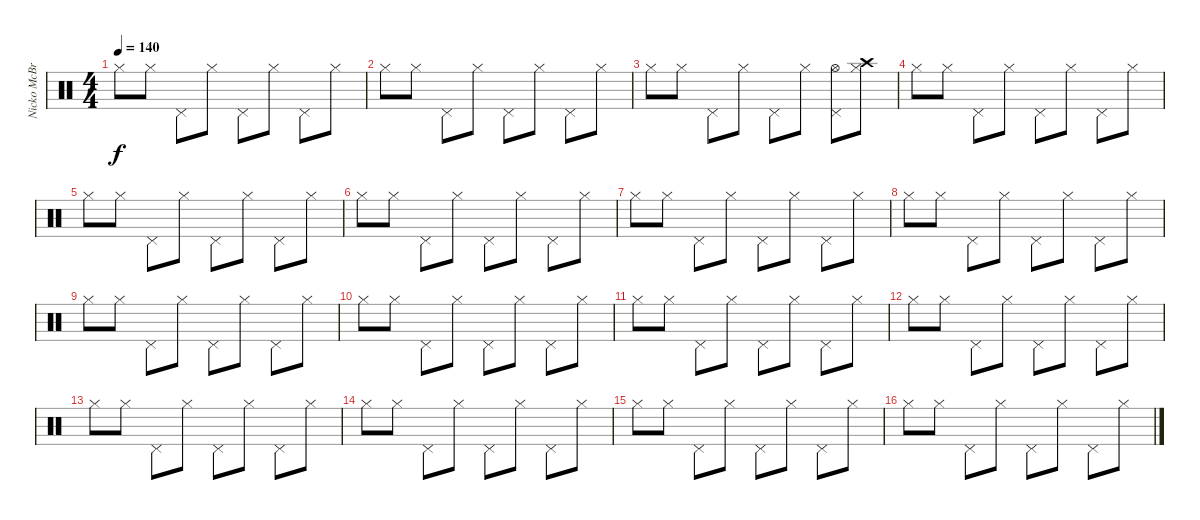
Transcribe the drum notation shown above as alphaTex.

\track ("Nicko McBrain" "Nicko McBr") {instrument percussion}
\staff {score}
\articulation defaults
\ts (4 4)
\tempo 140
\clef neutral
\ks c "Hi-Hat (closed)".8{dy f} "Hi-Hat (closed)".8 "Pedal Hi-Hat (hit)".8 "Hi-Hat (closed)".8 "Pedal Hi-Hat (hit)".8 "Hi-Hat (closed)".8 "Pedal Hi-Hat (hit)".8 "Hi-Hat (closed)".8
|
"Hi-Hat (closed)".8 "Hi-Hat (closed)".8 "Pedal Hi-Hat (hit)".8 "Hi-Hat (closed)".8 "Pedal Hi-Hat (hit)".8 "Hi-Hat (closed)".8 "Pedal Hi-Hat (hit)".8 "Hi-Hat (closed)".8 |
"Hi-Hat (closed)".8 "Hi-Hat (closed)".8 "Pedal Hi-Hat (hit)".8 "Hi-Hat (closed)".8 "Pedal Hi-Hat (hit)".8 "Hi-Hat (closed)".8 ("Hi-Hat (open)" "Pedal Hi-Hat (hit)").8 ("Crash high (hit)" "Hi-Hat (closed)").8 |
"Hi-Hat (closed)".8 "Hi-Hat (closed)".8 "Pedal Hi-Hat (hit)".8 "Hi-Hat (closed)".8 "Pedal Hi-Hat (hit)".8 "Hi-Hat (closed)".8 "Pedal Hi-Hat (hit)".8 "Hi-Hat (closed)".8 |
"Hi-Hat (closed)".8 "Hi-Hat (closed)".8 "Pedal Hi-Hat (hit)".8 "Hi-Hat (closed)".8 "Pedal Hi-Hat (hit)".8 "Hi-Hat (closed)".8 "Pedal Hi-Hat (hit)".8 "Hi-Hat (closed)".8 |
"Hi-Hat (closed)".8 "Hi-Hat (closed)".8 "Pedal Hi-Hat (hit)".8 "Hi-Hat (closed)".8 "Pedal Hi-Hat (hit)".8 "Hi-Hat (closed)".8 "Pedal Hi-Hat (hit)".8 "Hi-Hat (closed)".8 |
"Hi-Hat (closed)".8 "Hi-Hat (closed)".8 "Pedal Hi-Hat (hit)".8 "Hi-Hat (closed)".8 "Pedal Hi-Hat (hit)".8 "Hi-Hat (closed)".8 "Pedal Hi-Hat (hit)".8 "Hi-Hat (closed)".8 |
"Hi-Hat (closed)".8 "Hi-Hat (closed)".8 "Pedal Hi-Hat (hit)".8 "Hi-Hat (closed)".8 "Pedal Hi-Hat (hit)".8 "Hi-Hat (closed)".8 "Pedal Hi-Hat (hit)".8 "Hi-Hat (closed)".8 |
"Hi-Hat (closed)".8 "Hi-Hat (closed)".8 "Pedal Hi-Hat (hit)".8 "Hi-Hat (closed)".8 "Pedal Hi-Hat (hit)".8 "Hi-Hat (closed)".8 "Pedal Hi-Hat (hit)".8 "Hi-Hat (closed)".8 |
"Hi-Hat (closed)".8 "Hi-Hat (closed)".8 "Pedal Hi-Hat (hit)".8 "Hi-Hat (closed)".8 "Pedal Hi-Hat (hit)".8 "Hi-Hat (closed)".8 "Pedal Hi-Hat (hit)".8 "Hi-Hat (closed)".8 |
"Hi-Hat (closed)".8 "Hi-Hat (closed)".8 "Pedal Hi-Hat (hit)".8 "Hi-Hat (closed)".8 "Pedal Hi-Hat (hit)".8 "Hi-Hat (closed)".8 "Pedal Hi-Hat (hit)".8 "Hi-Hat (closed)".8 |
"Hi-Hat (closed)".8 "Hi-Hat (closed)".8 "Pedal Hi-Hat (hit)".8 "Hi-Hat (closed)".8 "Pedal Hi-Hat (hit)".8 "Hi-Hat (closed)".8 "Pedal Hi-Hat (hit)".8 "Hi-Hat (closed)".8 |
"Hi-Hat (closed)".8 "Hi-Hat (closed)".8 "Pedal Hi-Hat (hit)".8 "Hi-Hat (closed)".8 "Pedal Hi-Hat (hit)".8 "Hi-Hat (closed)".8 "Pedal Hi-Hat (hit)".8 "Hi-Hat (closed)".8 |
"Hi-Hat (closed)".8 "Hi-Hat (closed)".8 "Pedal Hi-Hat (hit)".8 "Hi-Hat (closed)".8 "Pedal Hi-Hat (hit)".8 "Hi-Hat (closed)".8 "Pedal Hi-Hat (hit)".8 "Hi-Hat (closed)".8 |
"Hi-Hat (closed)".8 "Hi-Hat (closed)".8 "Pedal Hi-Hat (hit)".8 "Hi-Hat (closed)".8 "Pedal Hi-Hat (hit)".8 "Hi-Hat (closed)".8 "Pedal Hi-Hat (hit)".8 "Hi-Hat (closed)".8 |
"Hi-Hat (closed)".8 "Hi-Hat (closed)".8 "Pedal Hi-Hat (hit)".8 "Hi-Hat (closed)".8 "Pedal Hi-Hat (hit)".8 "Hi-Hat (closed)".8 "Pedal Hi-Hat (hit)".8 "Hi-Hat (closed)".8
